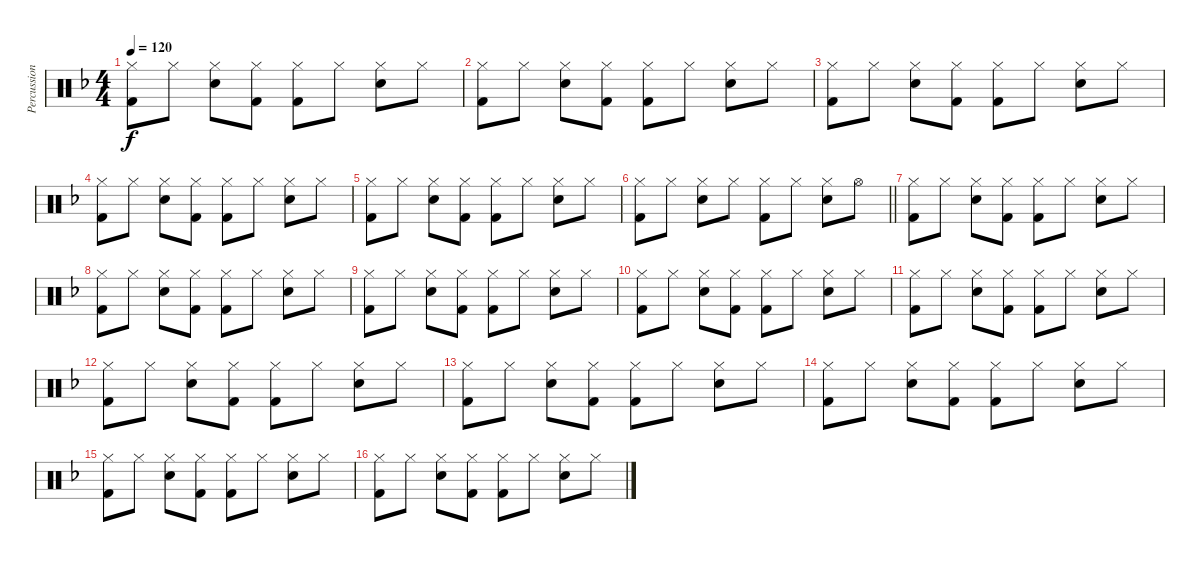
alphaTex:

\track ("Percussion" "Percussion") {instrument percussion}
\staff {score}
\articulation defaults
\ts (4 4)
\tempo 120
\clef neutral
\ks f
("Hi-Hat (closed)" "Kick (hit) 2").8{dy f} "Hi-Hat (closed)".8 ("Hi-Hat (closed)" "Snare (hit) 2").8 ("Hi-Hat (closed)" "Kick (hit) 2").8 ("Hi-Hat (closed)" "Kick (hit) 2").8 "Hi-Hat (closed)".8 ("Hi-Hat (closed)" "Snare (hit) 2").8 "Hi-Hat (closed)".8 |
("Hi-Hat (closed)" "Kick (hit) 2").8 "Hi-Hat (closed)".8 ("Hi-Hat (closed)" "Snare (hit) 2").8 ("Hi-Hat (closed)" "Kick (hit) 2").8 ("Hi-Hat (closed)" "Kick (hit) 2").8 "Hi-Hat (closed)".8 ("Hi-Hat (closed)" "Snare (hit) 2").8 "Hi-Hat (closed)".8 |
("Hi-Hat (closed)" "Kick (hit) 2").8 "Hi-Hat (closed)".8 ("Hi-Hat (closed)" "Snare (hit) 2").8 ("Hi-Hat (closed)" "Kick (hit) 2").8 ("Hi-Hat (closed)" "Kick (hit) 2").8 "Hi-Hat (closed)".8 ("Hi-Hat (closed)" "Snare (hit) 2").8 "Hi-Hat (closed)".8 |
("Hi-Hat (closed)" "Kick (hit) 2").8 "Hi-Hat (closed)".8 ("Hi-Hat (closed)" "Snare (hit) 2").8 ("Hi-Hat (closed)" "Kick (hit) 2").8 ("Hi-Hat (closed)" "Kick (hit) 2").8 "Hi-Hat (closed)".8 ("Hi-Hat (closed)" "Snare (hit) 2").8 "Hi-Hat (closed)".8 |
("Hi-Hat (closed)" "Kick (hit) 2").8 "Hi-Hat (closed)".8 ("Hi-Hat (closed)" "Snare (hit) 2").8 ("Hi-Hat (closed)" "Kick (hit) 2").8 ("Hi-Hat (closed)" "Kick (hit) 2").8 "Hi-Hat (closed)".8 ("Hi-Hat (closed)" "Snare (hit) 2").8 "Hi-Hat (closed)".8 |
\barLineRight lightlight
("Hi-Hat (closed)" "Kick (hit) 2").8 "Hi-Hat (closed)".8 ("Hi-Hat (closed)" "Snare (hit) 2").8 "Hi-Hat (closed)".8 ("Hi-Hat (closed)" "Kick (hit) 2").8 "Hi-Hat (closed)".8 ("Hi-Hat (closed)" "Snare (hit) 2").8 "Hi-Hat (open)".8 |
("Hi-Hat (closed)" "Kick (hit) 2").8 "Hi-Hat (closed)".8 ("Hi-Hat (closed)" "Snare (hit) 2").8 ("Hi-Hat (closed)" "Kick (hit) 2").8 ("Hi-Hat (closed)" "Kick (hit) 2").8 "Hi-Hat (closed)".8 ("Hi-Hat (closed)" "Snare (hit) 2").8 "Hi-Hat (closed)".8 |
("Hi-Hat (closed)" "Kick (hit) 2").8 "Hi-Hat (closed)".8 ("Hi-Hat (closed)" "Snare (hit) 2").8 ("Hi-Hat (closed)" "Kick (hit) 2").8 ("Hi-Hat (closed)" "Kick (hit) 2").8 "Hi-Hat (closed)".8 ("Hi-Hat (closed)" "Snare (hit) 2").8 "Hi-Hat (closed)".8 |
("Hi-Hat (closed)" "Kick (hit) 2").8 "Hi-Hat (closed)".8 ("Hi-Hat (closed)" "Snare (hit) 2").8 ("Hi-Hat (closed)" "Kick (hit) 2").8 ("Hi-Hat (closed)" "Kick (hit) 2").8 "Hi-Hat (closed)".8 ("Hi-Hat (closed)" "Snare (hit) 2").8 "Hi-Hat (closed)".8 |
("Hi-Hat (closed)" "Kick (hit) 2").8 "Hi-Hat (closed)".8 ("Hi-Hat (closed)" "Snare (hit) 2").8 ("Hi-Hat (closed)" "Kick (hit) 2").8 ("Hi-Hat (closed)" "Kick (hit) 2").8 "Hi-Hat (closed)".8 ("Hi-Hat (closed)" "Snare (hit) 2").8 "Hi-Hat (closed)".8 |
("Hi-Hat (closed)" "Kick (hit) 2").8 "Hi-Hat (closed)".8 ("Hi-Hat (closed)" "Snare (hit) 2").8 ("Hi-Hat (closed)" "Kick (hit) 2").8 ("Hi-Hat (closed)" "Kick (hit) 2").8 "Hi-Hat (closed)".8 ("Hi-Hat (closed)" "Snare (hit) 2").8 "Hi-Hat (closed)".8 |
("Hi-Hat (closed)" "Kick (hit) 2").8 "Hi-Hat (closed)".8 ("Hi-Hat (closed)" "Snare (hit) 2").8 ("Hi-Hat (closed)" "Kick (hit) 2").8 ("Hi-Hat (closed)" "Kick (hit) 2").8 "Hi-Hat (closed)".8 ("Hi-Hat (closed)" "Snare (hit) 2").8 "Hi-Hat (closed)".8 |
("Hi-Hat (closed)" "Kick (hit) 2").8 "Hi-Hat (closed)".8 ("Hi-Hat (closed)" "Snare (hit) 2").8 ("Hi-Hat (closed)" "Kick (hit) 2").8 ("Hi-Hat (closed)" "Kick (hit) 2").8 "Hi-Hat (closed)".8 ("Hi-Hat (closed)" "Snare (hit) 2").8 "Hi-Hat (closed)".8 |
("Hi-Hat (closed)" "Kick (hit) 2").8 "Hi-Hat (closed)".8 ("Hi-Hat (closed)" "Snare (hit) 2").8 ("Hi-Hat (closed)" "Kick (hit) 2").8 ("Hi-Hat (closed)" "Kick (hit) 2").8 "Hi-Hat (closed)".8 ("Hi-Hat (closed)" "Snare (hit) 2").8 "Hi-Hat (closed)".8 |
("Hi-Hat (closed)" "Kick (hit) 2").8 "Hi-Hat (closed)".8 ("Hi-Hat (closed)" "Snare (hit) 2").8 ("Hi-Hat (closed)" "Kick (hit) 2").8 ("Hi-Hat (closed)" "Kick (hit) 2").8 "Hi-Hat (closed)".8 ("Hi-Hat (closed)" "Snare (hit) 2").8 "Hi-Hat (closed)".8 |
("Hi-Hat (closed)" "Kick (hit) 2").8 "Hi-Hat (closed)".8 ("Hi-Hat (closed)" "Snare (hit) 2").8 ("Hi-Hat (closed)" "Kick (hit) 2").8 ("Hi-Hat (closed)" "Kick (hit) 2").8 "Hi-Hat (closed)".8 ("Hi-Hat (closed)" "Snare (hit) 2").8 "Hi-Hat (closed)".8
